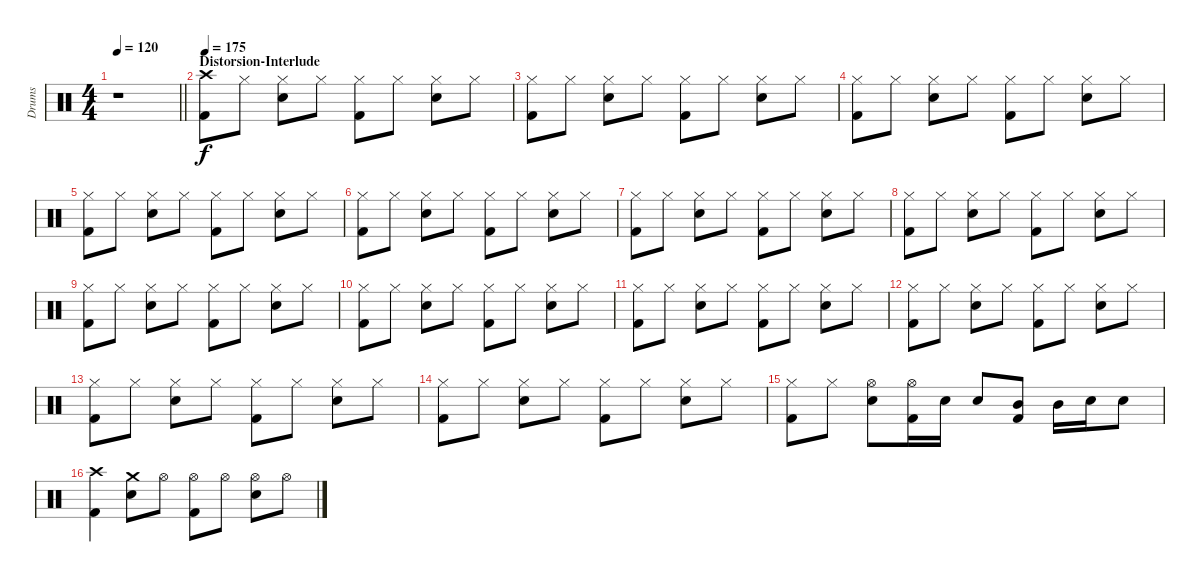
\track ("Drums" "Drums") {instrument percussion}
\staff {score}
\articulation defaults
\ts (4 4)
\tempo 120
\clef neutral
\barLineRight lightlight
\ks c
r.1{dy f} |
\section ("" "Distorsion-Interlude")
\tempo 175
("Crash high (hit)" "Kick (hit) 2").8 "Hi-Hat (closed)".8 ("Hi-Hat (closed)" "Snare (hit) 2").8 "Hi-Hat (closed)".8 ("Hi-Hat (closed)" "Kick (hit) 2").8 "Hi-Hat (closed)".8 ("Hi-Hat (closed)" "Snare (hit) 2").8 "Hi-Hat (closed)".8 |
("Hi-Hat (closed)" "Kick (hit) 2").8 "Hi-Hat (closed)".8 ("Hi-Hat (closed)" "Snare (hit) 2").8 "Hi-Hat (closed)".8 ("Hi-Hat (closed)" "Kick (hit) 2").8 "Hi-Hat (closed)".8 ("Hi-Hat (closed)" "Snare (hit) 2").8 "Hi-Hat (closed)".8 |
("Hi-Hat (closed)" "Kick (hit) 2").8 "Hi-Hat (closed)".8 ("Hi-Hat (closed)" "Snare (hit) 2").8 "Hi-Hat (closed)".8 ("Hi-Hat (closed)" "Kick (hit) 2").8 "Hi-Hat (closed)".8 ("Hi-Hat (closed)" "Snare (hit) 2").8 "Hi-Hat (closed)".8 |
("Hi-Hat (closed)" "Kick (hit) 2").8 "Hi-Hat (closed)".8 ("Hi-Hat (closed)" "Snare (hit) 2").8 "Hi-Hat (closed)".8 ("Hi-Hat (closed)" "Kick (hit) 2").8 "Hi-Hat (closed)".8 ("Hi-Hat (closed)" "Snare (hit) 2").8 "Hi-Hat (closed)".8 |
("Hi-Hat (closed)" "Kick (hit) 2").8 "Hi-Hat (closed)".8 ("Hi-Hat (closed)" "Snare (hit) 2").8 "Hi-Hat (closed)".8 ("Hi-Hat (closed)" "Kick (hit) 2").8 "Hi-Hat (closed)".8 ("Hi-Hat (closed)" "Snare (hit) 2").8 "Hi-Hat (closed)".8 |
("Hi-Hat (closed)" "Kick (hit) 2").8 "Hi-Hat (closed)".8 ("Hi-Hat (closed)" "Snare (hit) 2").8 "Hi-Hat (closed)".8 ("Hi-Hat (closed)" "Kick (hit) 2").8 "Hi-Hat (closed)".8 ("Hi-Hat (closed)" "Snare (hit) 2").8 "Hi-Hat (closed)".8 |
("Hi-Hat (closed)" "Kick (hit) 2").8 "Hi-Hat (closed)".8 ("Hi-Hat (closed)" "Snare (hit) 2").8 "Hi-Hat (closed)".8 ("Hi-Hat (closed)" "Kick (hit) 2").8 "Hi-Hat (closed)".8 ("Hi-Hat (closed)" "Snare (hit) 2").8 "Hi-Hat (closed)".8 |
("Hi-Hat (closed)" "Kick (hit) 2").8 "Hi-Hat (closed)".8 ("Hi-Hat (closed)" "Snare (hit) 2").8 "Hi-Hat (closed)".8 ("Hi-Hat (closed)" "Kick (hit) 2").8 "Hi-Hat (closed)".8 ("Hi-Hat (closed)" "Snare (hit) 2").8 "Hi-Hat (closed)".8 |
("Hi-Hat (closed)" "Kick (hit) 2").8 "Hi-Hat (closed)".8 ("Hi-Hat (closed)" "Snare (hit) 2").8 "Hi-Hat (closed)".8 ("Hi-Hat (closed)" "Kick (hit) 2").8 "Hi-Hat (closed)".8 ("Hi-Hat (closed)" "Snare (hit) 2").8 "Hi-Hat (closed)".8 |
("Hi-Hat (closed)" "Kick (hit) 2").8 "Hi-Hat (closed)".8 ("Hi-Hat (closed)" "Snare (hit) 2").8 "Hi-Hat (closed)".8 ("Hi-Hat (closed)" "Kick (hit) 2").8 "Hi-Hat (closed)".8 ("Hi-Hat (closed)" "Snare (hit) 2").8 "Hi-Hat (closed)".8 |
("Hi-Hat (closed)" "Kick (hit) 2").8 "Hi-Hat (closed)".8 ("Hi-Hat (closed)" "Snare (hit) 2").8 "Hi-Hat (closed)".8 ("Hi-Hat (closed)" "Kick (hit) 2").8 "Hi-Hat (closed)".8 ("Hi-Hat (closed)" "Snare (hit) 2").8 "Hi-Hat (closed)".8 |
("Hi-Hat (closed)" "Kick (hit) 2").8 "Hi-Hat (closed)".8 ("Hi-Hat (closed)" "Snare (hit) 2").8 "Hi-Hat (closed)".8 ("Hi-Hat (closed)" "Kick (hit) 2").8 "Hi-Hat (closed)".8 ("Hi-Hat (closed)" "Snare (hit) 2").8 "Hi-Hat (closed)".8 |
("Hi-Hat (closed)" "Kick (hit) 2").8 "Hi-Hat (closed)".8 ("Hi-Hat (closed)" "Snare (hit) 2").8 "Hi-Hat (closed)".8 ("Hi-Hat (closed)" "Kick (hit) 2").8 "Hi-Hat (closed)".8 ("Hi-Hat (closed)" "Snare (hit) 2").8 "Hi-Hat (closed)".8 |
("Hi-Hat (closed)" "Kick (hit) 2").8 "Hi-Hat (closed)".8 ("Hi-Hat (open)" "Snare (hit) 2").8 ("Hi-Hat (open)" "Kick (hit) 2").16 "Snare (hit) 2".16 "Snare (hit) 2".8 ("Kick (hit) 2" "Mid Tom (hit)").8 "Mid Tom (hit)".16 "Snare (hit) 2".16 "Snare (hit) 2".8 |
("Crash high (hit)" "Kick (hit) 2").4 ("Crash medium (hit)" "Snare (hit) 2").8 "Hi-Hat (open)".8 ("Hi-Hat (open)" "Kick (hit) 2").8 "Hi-Hat (open)".8 ("Hi-Hat (open)" "Snare (hit) 2").8 "Hi-Hat (open)".8
